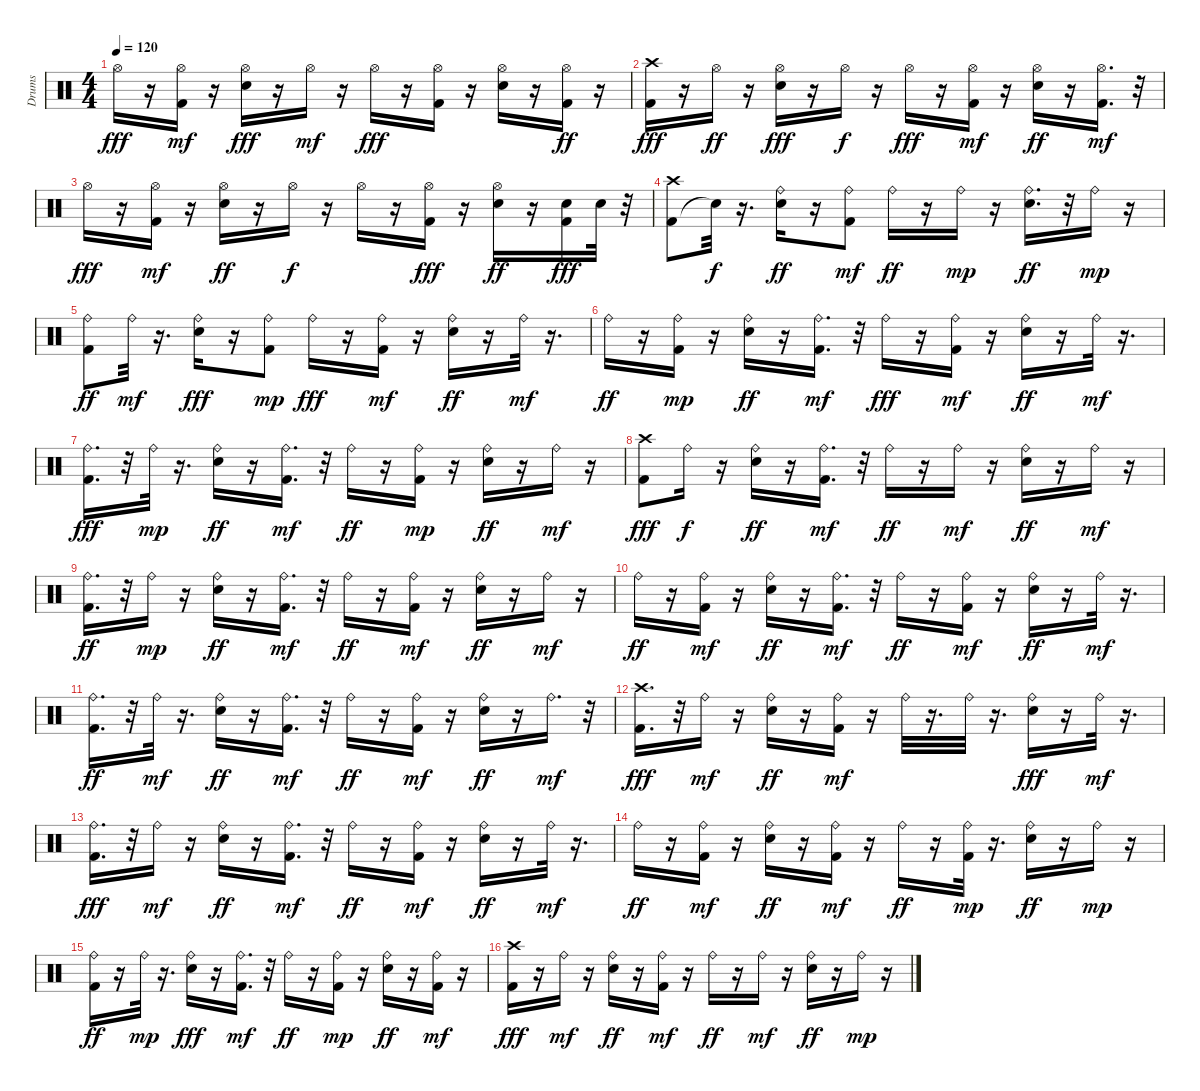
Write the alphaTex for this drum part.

\track ("Drums" "Drums") {instrument percussion}
\staff {score}
\articulation defaults
\ts (4 4)
\tempo 120
\clef neutral
\ks c "Hi-Hat (open)".16{dy fff}
r.16 ("Kick (hit) 2" "Hi-Hat (open)").16{dy mf} r.16 ("Electric Snare (hit)" "Hi-Hat (open)").16{dy fff} r.16 "Hi-Hat (open)".16{dy mf} r.16 "Hi-Hat (open)".16{dy fff} r.16 ("Kick (hit) 2" "Hi-Hat (open)").16 r.16 ("Electric Snare (hit)" "Hi-Hat (open)").16 r.16 ("Kick (hit) 2" "Hi-Hat (open)").16{dy ff} r.16 |
("Kick (hit) 2" "Crash high (hit)").16{dy fff} r.16 "Hi-Hat (open)".16{dy ff} r.16 ("Electric Snare (hit)" "Hi-Hat (open)").16{dy fff} r.16 "Hi-Hat (open)".16{dy f} r.16 "Hi-Hat (open)".16{dy fff} r.16 ("Kick (hit) 2" "Hi-Hat (open)").16{dy mf} r.16 ("Electric Snare (hit)" "Hi-Hat (open)").16{dy ff} r.16 ("Kick (hit) 2" "Hi-Hat (open)").16{d dy mf} r.32 |
"Hi-Hat (open)".16{dy fff} r.16 ("Kick (hit) 2" "Hi-Hat (open)").16{dy mf} r.16 ("Electric Snare (hit)" "Hi-Hat (open)").16{dy ff} r.16 "Hi-Hat (open)".16{dy f} r.16 "Hi-Hat (open)".16 r.16 ("Kick (hit) 2" "Hi-Hat (open)").16{dy fff} r.16 ("Electric Snare (hit)" "Hi-Hat (open)").16{dy ff} r.16 ("Kick (hit) 2" "Electric Snare (hit)").16{dy fff} "Electric Snare (hit)".32 r.32 |
("Kick (hit) 2" "Crash high (hit)").8 "Snare (hit)"{t}.32{dy f} r.16{d} ("Electric Snare (hit)" "Ride (bell)").16{dy ff} r.16 ("Kick (hit) 2" "Ride (bell)").8{dy mf} "Ride (bell)".16{dy ff} r.16 "Ride (bell)".16{dy mp} r.16 ("Electric Snare (hit)" "Ride (bell)").16{d dy ff} r.32 "Ride (bell)".16{dy mp} r.16 |
("Kick (hit) 2" "Ride (bell)").8{dy ff} "Ride (bell)".32{dy mf} r.16{d} ("Electric Snare (hit)" "Ride (bell)").16{dy fff} r.16 ("Kick (hit) 2" "Ride (bell)").8{dy mp} "Ride (bell)".16{dy fff} r.16 ("Kick (hit) 2" "Ride (bell)").16{dy mf} r.16 ("Electric Snare (hit)" "Ride (bell)").16{dy ff} r.16 "Ride (bell)".32{dy mf} r.16{d} |
"Ride (bell)".16{dy ff} r.16 ("Kick (hit) 2" "Ride (bell)").16{dy mp} r.16 ("Electric Snare (hit)" "Ride (bell)").16{dy ff} r.16 ("Kick (hit) 2" "Ride (bell)").16{d dy mf} r.32 "Ride (bell)".16{dy fff} r.16 ("Kick (hit) 2" "Ride (bell)").16{dy mf} r.16 ("Electric Snare (hit)" "Ride (bell)").16{dy ff} r.16 "Ride (bell)".32{dy mf} r.16{d} |
("Kick (hit) 2" "Ride (bell)").16{d dy fff} r.32 "Ride (bell)".32{dy mp} r.16{d} ("Electric Snare (hit)" "Ride (bell)").16{dy ff} r.16 ("Kick (hit) 2" "Ride (bell)").16{d dy mf} r.32 "Ride (bell)".16{dy ff} r.16 ("Kick (hit) 2" "Ride (bell)").16{dy mp} r.16 ("Electric Snare (hit)" "Ride (bell)").16{dy ff} r.16 "Ride (bell)".16{dy mf} r.16 |
("Kick (hit) 2" "Crash high (hit)").8{dy fff} "Ride (bell)".16{dy f} r.16 ("Electric Snare (hit)" "Ride (bell)").16{dy ff} r.16 ("Kick (hit) 2" "Ride (bell)").16{d dy mf} r.32 "Ride (bell)".16{dy ff} r.16 "Ride (bell)".16{dy mf} r.16 ("Electric Snare (hit)" "Ride (bell)").16{dy ff} r.16 "Ride (bell)".16{dy mf} r.16 |
("Kick (hit) 2" "Ride (bell)").16{d dy ff} r.32 "Ride (bell)".16{dy mp} r.16 ("Electric Snare (hit)" "Ride (bell)").16{dy ff} r.16 ("Kick (hit) 2" "Ride (bell)").16{d dy mf} r.32 "Ride (bell)".16{dy ff} r.16 ("Kick (hit) 2" "Ride (bell)").16{dy mf} r.16 ("Electric Snare (hit)" "Ride (bell)").16{dy ff} r.16 "Ride (bell)".16{dy mf} r.16 |
"Ride (bell)".16{dy ff} r.16 ("Kick (hit) 2" "Ride (bell)").16{dy mf} r.16 ("Electric Snare (hit)" "Ride (bell)").16{dy ff} r.16 ("Kick (hit) 2" "Ride (bell)").16{d dy mf} r.32 "Ride (bell)".16{dy ff} r.16 ("Kick (hit) 2" "Ride (bell)").16{dy mf} r.16 ("Electric Snare (hit)" "Ride (bell)").16{dy ff} r.16 "Ride (bell)".32{dy mf} r.16{d} |
("Kick (hit) 2" "Ride (bell)").16{d dy ff} r.32 "Ride (bell)".32{dy mf} r.16{d} ("Electric Snare (hit)" "Ride (bell)").16{dy ff} r.16 ("Kick (hit) 2" "Ride (bell)").16{d dy mf} r.32 "Ride (bell)".16{dy ff} r.16 ("Kick (hit) 2" "Ride (bell)").16{dy mf} r.16 ("Electric Snare (hit)" "Ride (bell)").16{dy ff} r.16 "Ride (bell)".16{d dy mf} r.32 |
("Kick (hit) 2" "Crash high (hit)").16{d dy fff} r.32 "Ride (bell)".16{dy mf} r.16 ("Electric Snare (hit)" "Ride (bell)").16{dy ff} r.16 ("Kick (hit) 2" "Ride (bell)").16{dy mf} r.16 "Ride (bell)".32 r.16{d} "Ride (bell)".32 r.16{d} ("Electric Snare (hit)" "Ride (bell)").16{dy fff} r.16 "Ride (bell)".32{dy mf} r.16{d} |
("Kick (hit) 2" "Ride (bell)").16{d dy fff} r.32 "Ride (bell)".16{dy mf} r.16 ("Electric Snare (hit)" "Ride (bell)").16{dy ff} r.16 ("Kick (hit) 2" "Ride (bell)").16{d dy mf} r.32 "Ride (bell)".16{dy ff} r.16 ("Kick (hit) 2" "Ride (bell)").16{dy mf} r.16 ("Electric Snare (hit)" "Ride (bell)").16{dy ff} r.16 "Ride (bell)".32{dy mf} r.16{d} |
"Ride (bell)".16{dy ff} r.16 ("Kick (hit) 2" "Ride (bell)").16{dy mf} r.16 ("Electric Snare (hit)" "Ride (bell)").16{dy ff} r.16 ("Kick (hit) 2" "Ride (bell)").16{dy mf} r.16 "Ride (bell)".16{dy ff} r.16 ("Kick (hit) 2" "Ride (bell)").32{dy mp} r.16{d} ("Electric Snare (hit)" "Ride (bell)").16{dy ff} r.16 "Ride (bell)".16{dy mp} r.16 |
("Kick (hit) 2" "Ride (bell)").16{dy ff} r.16 "Ride (bell)".32{dy mp} r.16{d} ("Electric Snare (hit)" "Ride (bell)").16{dy fff} r.16 ("Kick (hit) 2" "Ride (bell)").16{d dy mf} r.32 "Ride (bell)".16{dy ff} r.16 ("Kick (hit) 2" "Ride (bell)").16{dy mp} r.16 ("Electric Snare (hit)" "Ride (bell)").16{dy ff} r.16 ("Kick (hit) 2" "Ride (bell)").16{dy mf} r.16 |
("Kick (hit) 2" "Crash high (hit)").16{dy fff} r.16 "Ride (bell)".16{dy mf} r.16 ("Electric Snare (hit)" "Ride (bell)").16{dy ff} r.16 ("Kick (hit) 2" "Ride (bell)").16{dy mf} r.16 "Ride (bell)".16{dy ff} r.16 "Ride (bell)".16{dy mf} r.16 ("Electric Snare (hit)" "Ride (bell)").16{dy ff} r.16 "Ride (bell)".16{dy mp} r.16
